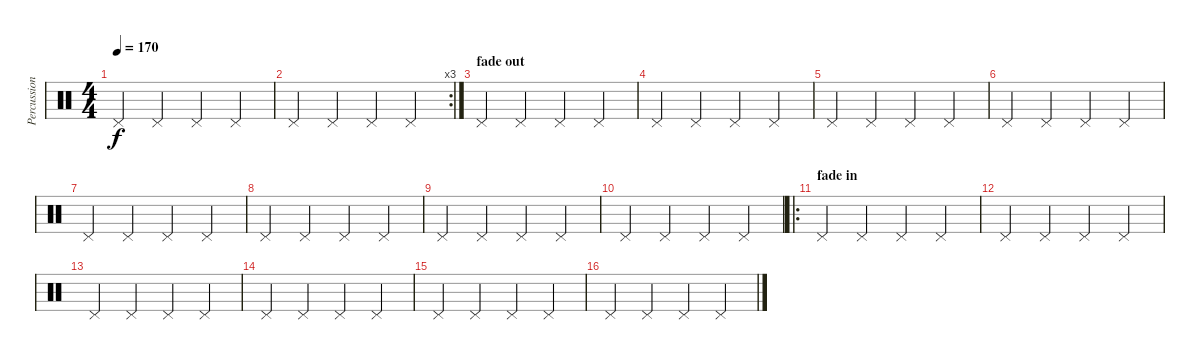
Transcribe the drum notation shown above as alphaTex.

\track ("Percussion" "Percussion") {instrument percussion}
\staff {score}
\articulation defaults
\ts (4 4)
\tempo 170
\clef neutral
\ks c "Pedal Hi-Hat (hit)".4{dy f} "Pedal Hi-Hat (hit)".4 "Pedal Hi-Hat (hit)".4 "Pedal Hi-Hat (hit)".4
|
\rc 3 "Pedal Hi-Hat (hit)".4 "Pedal Hi-Hat (hit)".4 "Pedal Hi-Hat (hit)".4 "Pedal Hi-Hat (hit)".4
|
\section ("" "fade out")
"Pedal Hi-Hat (hit)".4 "Pedal Hi-Hat (hit)".4 "Pedal Hi-Hat (hit)".4 "Pedal Hi-Hat (hit)".4 |
"Pedal Hi-Hat (hit)".4 "Pedal Hi-Hat (hit)".4 "Pedal Hi-Hat (hit)".4 "Pedal Hi-Hat (hit)".4 |
"Pedal Hi-Hat (hit)".4 "Pedal Hi-Hat (hit)".4 "Pedal Hi-Hat (hit)".4 "Pedal Hi-Hat (hit)".4 |
"Pedal Hi-Hat (hit)".4 "Pedal Hi-Hat (hit)".4 "Pedal Hi-Hat (hit)".4 "Pedal Hi-Hat (hit)".4 |
"Pedal Hi-Hat (hit)".4 "Pedal Hi-Hat (hit)".4 "Pedal Hi-Hat (hit)".4 "Pedal Hi-Hat (hit)".4 |
"Pedal Hi-Hat (hit)".4 "Pedal Hi-Hat (hit)".4 "Pedal Hi-Hat (hit)".4 "Pedal Hi-Hat (hit)".4 |
"Pedal Hi-Hat (hit)".4 "Pedal Hi-Hat (hit)".4 "Pedal Hi-Hat (hit)".4 "Pedal Hi-Hat (hit)".4 |
"Pedal Hi-Hat (hit)".4 "Pedal Hi-Hat (hit)".4 "Pedal Hi-Hat (hit)".4 "Pedal Hi-Hat (hit)".4 |
\ro
\section ("" "fade in")
"Pedal Hi-Hat (hit)".4 "Pedal Hi-Hat (hit)".4 "Pedal Hi-Hat (hit)".4 "Pedal Hi-Hat (hit)".4 |
"Pedal Hi-Hat (hit)".4 "Pedal Hi-Hat (hit)".4 "Pedal Hi-Hat (hit)".4 "Pedal Hi-Hat (hit)".4 |
"Pedal Hi-Hat (hit)".4 "Pedal Hi-Hat (hit)".4 "Pedal Hi-Hat (hit)".4 "Pedal Hi-Hat (hit)".4 |
"Pedal Hi-Hat (hit)".4 "Pedal Hi-Hat (hit)".4 "Pedal Hi-Hat (hit)".4 "Pedal Hi-Hat (hit)".4 |
"Pedal Hi-Hat (hit)".4 "Pedal Hi-Hat (hit)".4 "Pedal Hi-Hat (hit)".4 "Pedal Hi-Hat (hit)".4 |
"Pedal Hi-Hat (hit)".4 "Pedal Hi-Hat (hit)".4 "Pedal Hi-Hat (hit)".4 "Pedal Hi-Hat (hit)".4
